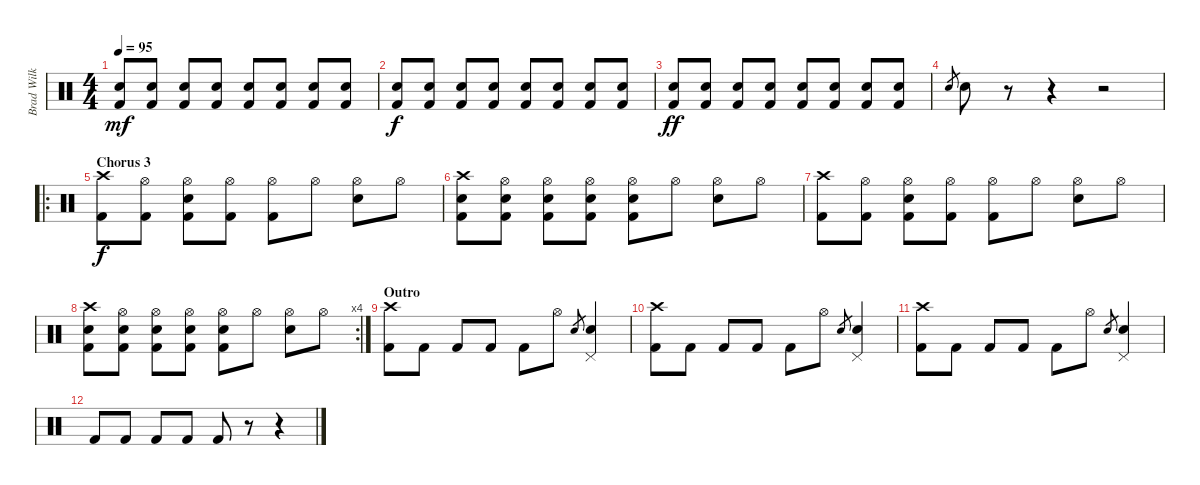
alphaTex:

\track ("Brad Wilk" "Brad Wilk") {instrument percussion}
\staff {score}
\articulation defaults
\ts (4 4)
\tempo 95
\clef neutral
\ks c
("Electric Snare (hit)" "Kick (hit) 2").8{dy mf} ("Electric Snare (hit)" "Kick (hit) 2").8 ("Electric Snare (hit)" "Kick (hit) 2").8 ("Electric Snare (hit)" "Kick (hit) 2").8 ("Electric Snare (hit)" "Kick (hit) 2").8 ("Electric Snare (hit)" "Kick (hit) 2").8 ("Electric Snare (hit)" "Kick (hit) 2").8 ("Electric Snare (hit)" "Kick (hit) 2").8 |
("Electric Snare (hit)" "Kick (hit) 2").8{dy f} ("Electric Snare (hit)" "Kick (hit) 2").8 ("Electric Snare (hit)" "Kick (hit) 2").8 ("Electric Snare (hit)" "Kick (hit) 2").8 ("Electric Snare (hit)" "Kick (hit) 2").8 ("Electric Snare (hit)" "Kick (hit) 2").8 ("Electric Snare (hit)" "Kick (hit) 2").8 ("Electric Snare (hit)" "Kick (hit) 2").8 |
("Electric Snare (hit)" "Kick (hit) 2").8{dy ff} ("Electric Snare (hit)" "Kick (hit) 2").8 ("Electric Snare (hit)" "Kick (hit) 2").8 ("Electric Snare (hit)" "Kick (hit) 2").8 ("Electric Snare (hit)" "Kick (hit) 2").8 ("Electric Snare (hit)" "Kick (hit) 2").8 ("Electric Snare (hit)" "Kick (hit) 2").8 ("Electric Snare (hit)" "Kick (hit) 2").8 |
"Electric Snare (hit)".8{gr} "Electric Snare (hit)".8 r.8 r.4 r.2 |
\ro
\section ("" "Chorus 3")
("Crash high (hit)" "Kick (hit) 2").8{dy f} ("Hi-Hat (open)" "Kick (hit) 2").8 ("Hi-Hat (open)" "Electric Snare (hit)" "Kick (hit) 2").8 ("Hi-Hat (open)" "Kick (hit) 2").8 ("Hi-Hat (open)" "Kick (hit) 2").8 "Hi-Hat (open)".8 ("Hi-Hat (open)" "Electric Snare (hit)").8 "Hi-Hat (open)".8 |
("Crash high (hit)" "Electric Snare (hit)" "Kick (hit) 2").8 ("Hi-Hat (open)" "Electric Snare (hit)" "Kick (hit) 2").8 ("Hi-Hat (open)" "Electric Snare (hit)" "Kick (hit) 2").8 ("Hi-Hat (open)" "Electric Snare (hit)" "Kick (hit) 2").8 ("Hi-Hat (open)" "Electric Snare (hit)" "Kick (hit) 2").8 "Hi-Hat (open)".8 ("Hi-Hat (open)" "Electric Snare (hit)").8 "Hi-Hat (open)".8 |
("Crash high (hit)" "Kick (hit) 2").8 ("Hi-Hat (open)" "Kick (hit) 2").8 ("Hi-Hat (open)" "Electric Snare (hit)" "Kick (hit) 2").8 ("Hi-Hat (open)" "Kick (hit) 2").8 ("Hi-Hat (open)" "Kick (hit) 2").8 "Hi-Hat (open)".8 ("Hi-Hat (open)" "Electric Snare (hit)").8 "Hi-Hat (open)".8 |
\rc 4
("Crash high (hit)" "Electric Snare (hit)" "Kick (hit) 2").8 ("Hi-Hat (open)" "Electric Snare (hit)" "Kick (hit) 2").8 ("Hi-Hat (open)" "Electric Snare (hit)" "Kick (hit) 2").8 ("Hi-Hat (open)" "Electric Snare (hit)" "Kick (hit) 2").8 ("Hi-Hat (open)" "Electric Snare (hit)" "Kick (hit) 2").8 "Hi-Hat (open)".8 ("Hi-Hat (open)" "Electric Snare (hit)").8 "Hi-Hat (open)".8 |
\section ("" "Outro")
("Crash high (hit)" "Kick (hit) 2").8 "Kick (hit) 2".8 "Kick (hit) 2".8 "Kick (hit) 2".8 "Kick (hit) 2".8 "Hi-Hat (open)".8 "Electric Snare (hit)".8{gr} ("Pedal Hi-Hat (hit)" "Electric Snare (hit)").4 |
("Crash high (hit)" "Kick (hit) 2").8 "Kick (hit) 2".8 "Kick (hit) 2".8 "Kick (hit) 2".8 "Kick (hit) 2".8 "Hi-Hat (open)".8 "Electric Snare (hit)".8{gr} ("Pedal Hi-Hat (hit)" "Electric Snare (hit)").4 |
("Crash high (hit)" "Kick (hit) 2").8 "Kick (hit) 2".8 "Kick (hit) 2".8 "Kick (hit) 2".8 "Kick (hit) 2".8 "Hi-Hat (open)".8 "Electric Snare (hit)".8{gr} ("Pedal Hi-Hat (hit)" "Electric Snare (hit)").4 |
"Kick (hit) 2".8 "Kick (hit) 2".8 "Kick (hit) 2".8 "Kick (hit) 2".8 "Kick (hit) 2".8 r.8 r.4
